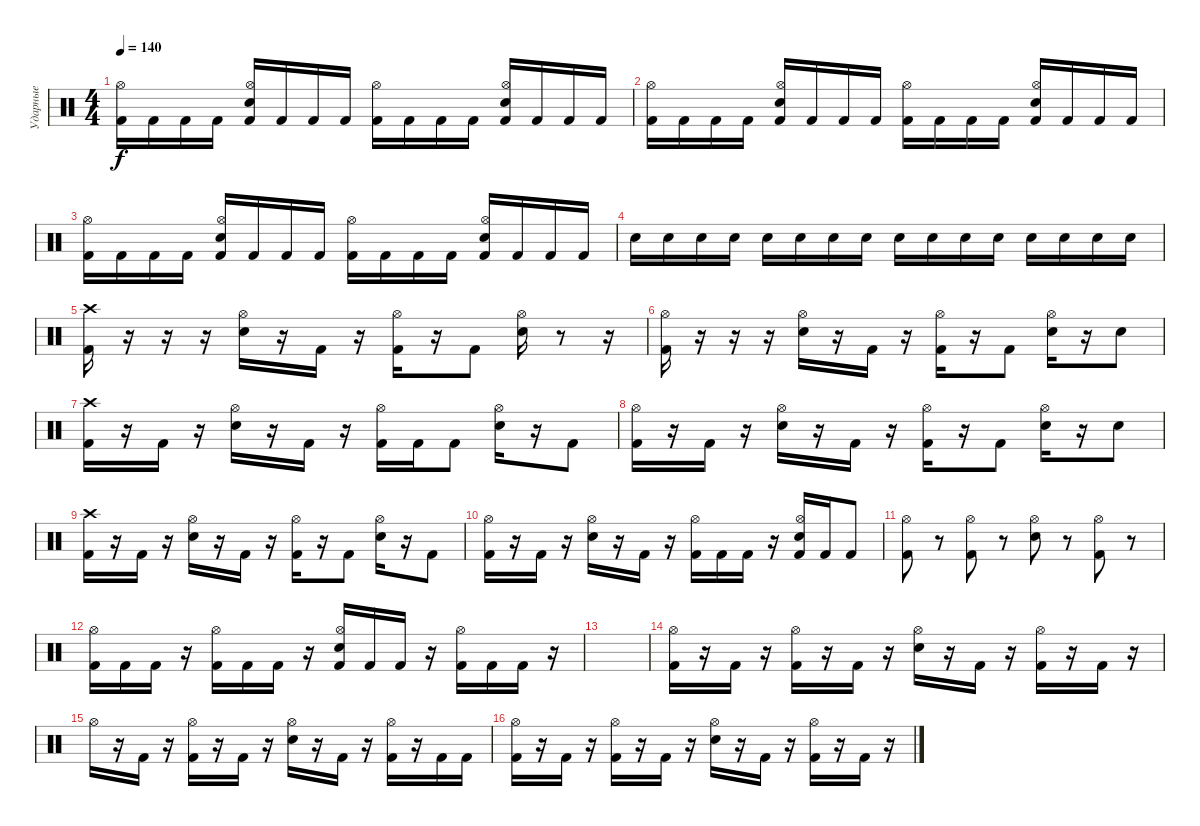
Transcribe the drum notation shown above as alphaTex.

\track ("Ударные" "Ударные") {instrument percussion}
\staff {score}
\articulation defaults
\ts (4 4)
\tempo 140
\clef neutral
\ks c
("Kick (hit) 2" "Hi-Hat (open)").16{dy f} "Kick (hit) 2".16 "Kick (hit) 2".16 "Kick (hit) 2".16 ("Kick (hit) 2" "Snare (hit) 2" "Hi-Hat (open)").16 "Kick (hit) 2".16 "Kick (hit) 2".16 "Kick (hit) 2".16 ("Kick (hit) 2" "Hi-Hat (open)").16 "Kick (hit) 2".16 "Kick (hit) 2".16 "Kick (hit) 2".16 ("Kick (hit) 2" "Snare (hit) 2" "Hi-Hat (open)").16 "Kick (hit) 2".16 "Kick (hit) 2".16 "Kick (hit) 2".16 |
("Kick (hit) 2" "Hi-Hat (open)").16 "Kick (hit) 2".16 "Kick (hit) 2".16 "Kick (hit) 2".16 ("Kick (hit) 2" "Snare (hit) 2" "Hi-Hat (open)").16 "Kick (hit) 2".16 "Kick (hit) 2".16 "Kick (hit) 2".16 ("Kick (hit) 2" "Hi-Hat (open)").16 "Kick (hit) 2".16 "Kick (hit) 2".16 "Kick (hit) 2".16 ("Kick (hit) 2" "Snare (hit) 2" "Hi-Hat (open)").16 "Kick (hit) 2".16 "Kick (hit) 2".16 "Kick (hit) 2".16 |
("Kick (hit) 2" "Hi-Hat (open)").16 "Kick (hit) 2".16 "Kick (hit) 2".16 "Kick (hit) 2".16 ("Kick (hit) 2" "Snare (hit) 2" "Hi-Hat (open)").16 "Kick (hit) 2".16 "Kick (hit) 2".16 "Kick (hit) 2".16 ("Kick (hit) 2" "Hi-Hat (open)").16 "Kick (hit) 2".16 "Kick (hit) 2".16 "Kick (hit) 2".16 ("Kick (hit) 2" "Snare (hit) 2" "Hi-Hat (open)").16 "Kick (hit) 2".16 "Kick (hit) 2".16 "Kick (hit) 2".16 |
"Snare (hit) 2".16 "Snare (hit) 2".16 "Snare (hit) 2".16 "Snare (hit) 2".16 "Snare (hit) 2".16 "Snare (hit) 2".16 "Snare (hit) 2".16 "Snare (hit) 2".16 "Snare (hit) 2".16 "Snare (hit) 2".16 "Snare (hit) 2".16 "Snare (hit) 2".16 "Snare (hit) 2".16 "Snare (hit) 2".16 "Snare (hit) 2".16 "Snare (hit) 2".16 |
("Crash high (hit)" "Kick (hit) 2").16 r.16 r.16 r.16 ("Hi-Hat (open)" "Snare (hit) 2").16 r.16 "Kick (hit) 2".16 r.16 ("Hi-Hat (open)" "Kick (hit) 2").16 r.16 "Kick (hit) 2".8 ("Hi-Hat (open)" "Snare (hit) 2").16 r.8 r.16 |
("Hi-Hat (open)" "Kick (hit) 2").16 r.16 r.16 r.16 ("Hi-Hat (open)" "Snare (hit) 2").16 r.16 "Kick (hit) 2".16 r.16 ("Hi-Hat (open)" "Kick (hit) 2").16 r.16 "Kick (hit) 2".8 ("Hi-Hat (open)" "Snare (hit) 2").16 r.16 "Snare (hit) 2".8 |
("Crash high (hit)" "Kick (hit) 2").16 r.16 "Kick (hit) 2".16 r.16 ("Hi-Hat (open)" "Snare (hit) 2").16 r.16 "Kick (hit) 2".16 r.16 ("Hi-Hat (open)" "Kick (hit) 2").16 "Kick (hit) 2".16 "Kick (hit) 2".8 ("Hi-Hat (open)" "Snare (hit) 2").16 r.16 "Kick (hit) 2".8 |
("Hi-Hat (open)" "Kick (hit) 2").16 r.16 "Kick (hit) 2".16 r.16 ("Hi-Hat (open)" "Snare (hit) 2").16 r.16 "Kick (hit) 2".16 r.16 ("Hi-Hat (open)" "Kick (hit) 2"{tr (36 16)}).16 r.16 "Kick (hit) 2"{tr (36 16)}.8 ("Hi-Hat (open)" "Snare (hit) 2").16 r.16 "Snare (hit) 2".8 |
("Crash high (hit)" "Kick (hit) 2").16 r.16 "Kick (hit) 2".16 r.16 ("Hi-Hat (open)" "Snare (hit) 2").16 r.16 "Kick (hit) 2".16 r.16 ("Hi-Hat (open)" "Kick (hit) 2").16 r.16 "Kick (hit) 2".8 ("Hi-Hat (open)" "Snare (hit) 2").16 r.16 "Kick (hit) 2".8 |
("Hi-Hat (open)" "Kick (hit) 2").16 r.16 "Kick (hit) 2".16 r.16 ("Hi-Hat (open)" "Snare (hit) 2").16 r.16 "Kick (hit) 2".16 r.16 ("Hi-Hat (open)" "Kick (hit) 2").16 "Kick (hit) 2".16 "Kick (hit) 2".16 r.16 ("Hi-Hat (open)" "Kick (hit) 2" "Snare (hit) 2").16 "Kick (hit) 2".16 "Kick (hit) 2".8 |
("Hi-Hat (open)" "Kick (hit) 2").8 r.8 ("Hi-Hat (open)" "Kick (hit) 2").8 r.8 ("Hi-Hat (open)" "Snare (hit) 2").8 r.8 ("Hi-Hat (open)" "Kick (hit) 2").8 r.8 |
("Hi-Hat (open)" "Kick (hit) 2").16 "Kick (hit) 2".16 "Kick (hit) 2".16 r.16 ("Hi-Hat (open)" "Kick (hit) 2").16 "Kick (hit) 2".16 "Kick (hit) 2".16 r.16 ("Hi-Hat (open)" "Snare (hit) 2" "Kick (hit) 2").16 "Kick (hit) 2".16 "Kick (hit) 2".16 r.16 ("Hi-Hat (open)" "Kick (hit) 2").16 "Kick (hit) 2".16 "Kick (hit) 2".16 r.16 |
|
("Kick (hit) 2" "Hi-Hat (open)").16 r.16 "Kick (hit) 2".16 r.16 ("Kick (hit) 2" "Hi-Hat (open)").16 r.16 "Kick (hit) 2".16 r.16 ("Snare (hit) 2" "Hi-Hat (open)").16 r.16 "Kick (hit) 2".16 r.16 ("Kick (hit) 2" "Hi-Hat (open)").16 r.16 "Kick (hit) 2".16 r.16 |
"Hi-Hat (open)".16 r.16 "Kick (hit) 2".16 r.16 ("Hi-Hat (open)" "Kick (hit) 2").16 r.16 "Kick (hit) 2".16 r.16 ("Hi-Hat (open)" "Snare (hit) 2").16 r.16 "Kick (hit) 2".16 r.16 ("Hi-Hat (open)" "Kick (hit) 2").16 r.16 "Kick (hit) 2".16 "Kick (hit) 2".16 |
("Kick (hit) 2" "Hi-Hat (open)").16 r.16 "Kick (hit) 2".16 r.16 ("Kick (hit) 2" "Hi-Hat (open)").16 r.16 "Kick (hit) 2".16 r.16 ("Snare (hit) 2" "Hi-Hat (open)").16 r.16 "Kick (hit) 2".16 r.16 ("Kick (hit) 2" "Hi-Hat (open)").16 r.16 "Kick (hit) 2".16 r.16
